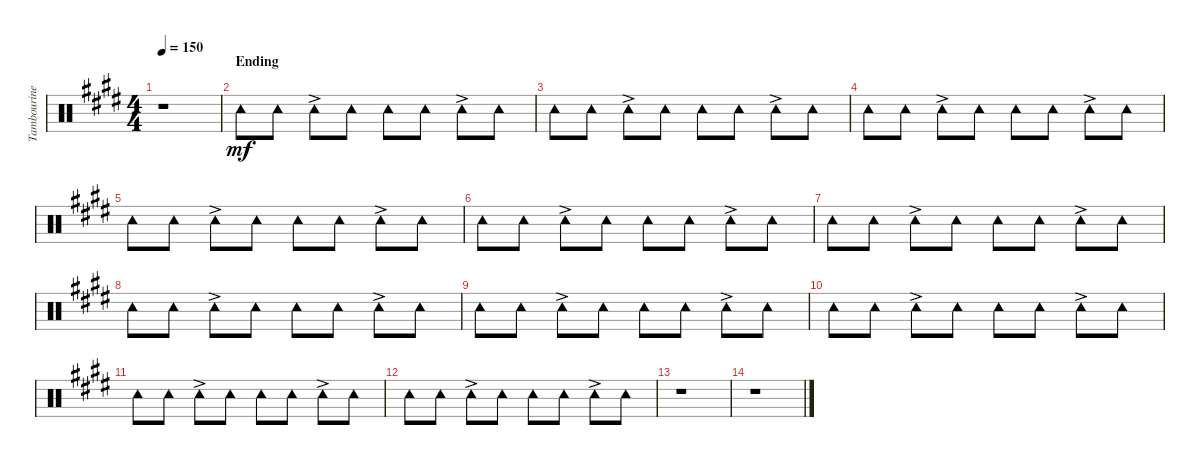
\track ("Tambourine" "Tambourine") {instrument percussion}
\staff {score}
\articulation defaults
\ts (4 4)
\tempo 150
\clef neutral
\ks e
r.1{dy mf} |
\section ("" "Ending")
"Tambourine (hit)".8 "Tambourine (hit)".8 "Tambourine (hit)"{ac}.8 "Tambourine (hit)".8 "Tambourine (hit)".8 "Tambourine (hit)".8 "Tambourine (hit)"{ac}.8 "Tambourine (hit)".8 |
"Tambourine (hit)".8 "Tambourine (hit)".8 "Tambourine (hit)"{ac}.8 "Tambourine (hit)".8 "Tambourine (hit)".8 "Tambourine (hit)".8 "Tambourine (hit)"{ac}.8 "Tambourine (hit)".8 |
"Tambourine (hit)".8 "Tambourine (hit)".8 "Tambourine (hit)"{ac}.8 "Tambourine (hit)".8 "Tambourine (hit)".8 "Tambourine (hit)".8 "Tambourine (hit)"{ac}.8 "Tambourine (hit)".8 |
"Tambourine (hit)".8 "Tambourine (hit)".8 "Tambourine (hit)"{ac}.8 "Tambourine (hit)".8 "Tambourine (hit)".8 "Tambourine (hit)".8 "Tambourine (hit)"{ac}.8 "Tambourine (hit)".8 |
"Tambourine (hit)".8 "Tambourine (hit)".8 "Tambourine (hit)"{ac}.8 "Tambourine (hit)".8 "Tambourine (hit)".8 "Tambourine (hit)".8 "Tambourine (hit)"{ac}.8 "Tambourine (hit)".8 |
"Tambourine (hit)".8 "Tambourine (hit)".8 "Tambourine (hit)"{ac}.8 "Tambourine (hit)".8 "Tambourine (hit)".8 "Tambourine (hit)".8 "Tambourine (hit)"{ac}.8 "Tambourine (hit)".8 |
"Tambourine (hit)".8 "Tambourine (hit)".8 "Tambourine (hit)"{ac}.8 "Tambourine (hit)".8 "Tambourine (hit)".8 "Tambourine (hit)".8 "Tambourine (hit)"{ac}.8 "Tambourine (hit)".8 |
"Tambourine (hit)".8 "Tambourine (hit)".8 "Tambourine (hit)"{ac}.8 "Tambourine (hit)".8 "Tambourine (hit)".8 "Tambourine (hit)".8 "Tambourine (hit)"{ac}.8 "Tambourine (hit)".8 |
"Tambourine (hit)".8 "Tambourine (hit)".8 "Tambourine (hit)"{ac}.8 "Tambourine (hit)".8 "Tambourine (hit)".8 "Tambourine (hit)".8 "Tambourine (hit)"{ac}.8 "Tambourine (hit)".8 |
"Tambourine (hit)".8 "Tambourine (hit)".8 "Tambourine (hit)"{ac}.8 "Tambourine (hit)".8 "Tambourine (hit)".8 "Tambourine (hit)".8 "Tambourine (hit)"{ac}.8 "Tambourine (hit)".8 |
"Tambourine (hit)".8 "Tambourine (hit)".8 "Tambourine (hit)"{ac}.8 "Tambourine (hit)".8 "Tambourine (hit)".8 "Tambourine (hit)".8 "Tambourine (hit)"{ac}.8 "Tambourine (hit)".8 |
r.1 |
r.1
